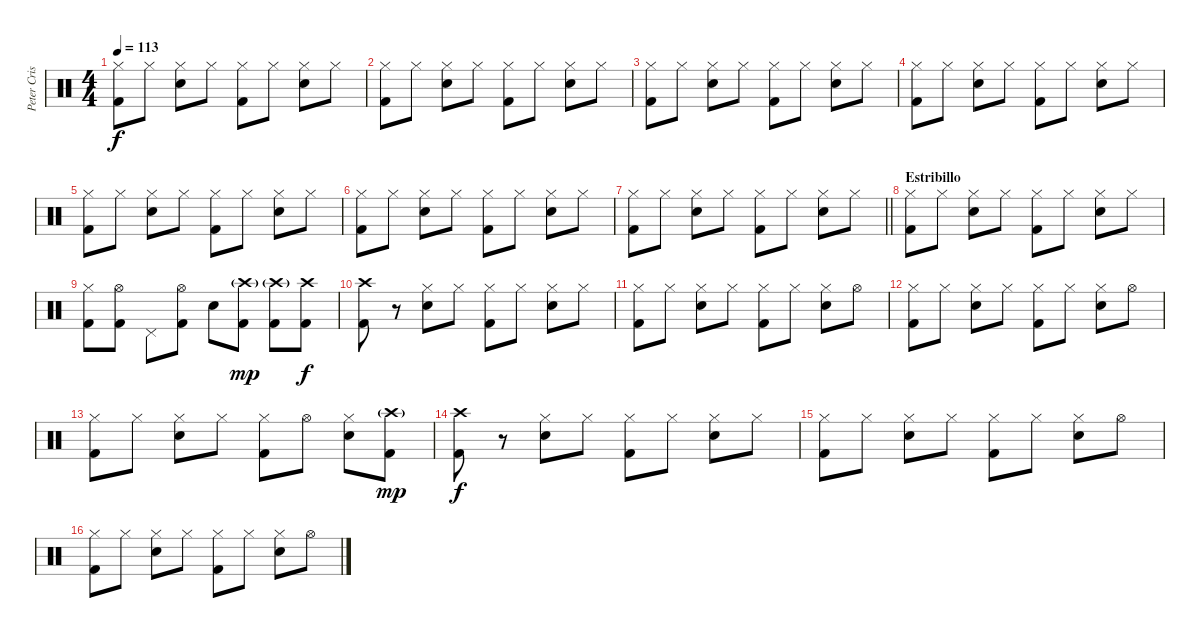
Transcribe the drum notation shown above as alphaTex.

\track ("Peter Criss" "Peter Cris") {instrument percussion}
\staff {score}
\articulation defaults
\ts (4 4)
\tempo 113
\clef neutral
\ks c
("Hi-Hat (closed)" "Kick (hit) 2").8{dy f} "Hi-Hat (closed)".8 ("Hi-Hat (closed)" "Electric Snare (hit)").8 "Hi-Hat (closed)".8 ("Hi-Hat (closed)" "Kick (hit) 2").8 "Hi-Hat (closed)".8 ("Hi-Hat (closed)" "Electric Snare (hit)").8 "Hi-Hat (closed)".8 |
("Hi-Hat (closed)" "Kick (hit) 2").8 "Hi-Hat (closed)".8 ("Hi-Hat (closed)" "Electric Snare (hit)").8 "Hi-Hat (closed)".8 ("Hi-Hat (closed)" "Kick (hit) 2").8 "Hi-Hat (closed)".8 ("Hi-Hat (closed)" "Electric Snare (hit)").8 "Hi-Hat (closed)".8 |
("Hi-Hat (closed)" "Kick (hit) 2").8 "Hi-Hat (closed)".8 ("Hi-Hat (closed)" "Electric Snare (hit)").8 "Hi-Hat (closed)".8 ("Hi-Hat (closed)" "Kick (hit) 2").8 "Hi-Hat (closed)".8 ("Hi-Hat (closed)" "Electric Snare (hit)").8 "Hi-Hat (closed)".8 |
("Hi-Hat (closed)" "Kick (hit) 2").8 "Hi-Hat (closed)".8 ("Hi-Hat (closed)" "Electric Snare (hit)").8 "Hi-Hat (closed)".8 ("Hi-Hat (closed)" "Kick (hit) 2").8 "Hi-Hat (closed)".8 ("Hi-Hat (closed)" "Electric Snare (hit)").8 "Hi-Hat (closed)".8 |
("Hi-Hat (closed)" "Kick (hit) 2").8 "Hi-Hat (closed)".8 ("Hi-Hat (closed)" "Electric Snare (hit)").8 "Hi-Hat (closed)".8 ("Hi-Hat (closed)" "Kick (hit) 2").8 "Hi-Hat (closed)".8 ("Hi-Hat (closed)" "Electric Snare (hit)").8 "Hi-Hat (closed)".8 |
("Hi-Hat (closed)" "Kick (hit) 2").8 "Hi-Hat (closed)".8 ("Hi-Hat (closed)" "Electric Snare (hit)").8 "Hi-Hat (closed)".8 ("Hi-Hat (closed)" "Kick (hit) 2").8 "Hi-Hat (closed)".8 ("Hi-Hat (closed)" "Electric Snare (hit)").8 "Hi-Hat (closed)".8 |
\barLineRight lightlight
("Hi-Hat (closed)" "Kick (hit) 2").8 "Hi-Hat (closed)".8 ("Hi-Hat (closed)" "Electric Snare (hit)").8 "Hi-Hat (closed)".8 ("Hi-Hat (closed)" "Kick (hit) 2").8 "Hi-Hat (closed)".8 ("Hi-Hat (closed)" "Electric Snare (hit)").8 "Hi-Hat (closed)".8 |
\section ("" "Estribillo")
("Hi-Hat (closed)" "Kick (hit) 2").8 "Hi-Hat (closed)".8 ("Hi-Hat (closed)" "Electric Snare (hit)").8 "Hi-Hat (closed)".8 ("Hi-Hat (closed)" "Kick (hit) 2").8 "Hi-Hat (closed)".8 ("Hi-Hat (closed)" "Electric Snare (hit)").8 "Hi-Hat (closed)".8 |
("Hi-Hat (closed)" "Kick (hit) 2").8 ("Hi-Hat (open)" "Kick (hit) 2").8 "Pedal Hi-Hat (hit)".8 ("Hi-Hat (open)" "Kick (hit) 2").8 "Electric Snare (hit)".8 ("Crash high (hit)"{g} "Kick (hit) 2").8{dy mp} ("Crash high (hit)"{g} "Kick (hit) 2").8 ("Crash high (hit)" "Kick (hit) 2").8{dy f} |
("Crash high (hit)" "Kick (hit) 2").8 r.8 ("Hi-Hat (closed)" "Electric Snare (hit)").8 "Hi-Hat (closed)".8 ("Hi-Hat (closed)" "Kick (hit) 2").8 "Hi-Hat (closed)".8 ("Hi-Hat (closed)" "Electric Snare (hit)").8 "Hi-Hat (closed)".8 |
("Hi-Hat (closed)" "Kick (hit) 2").8 "Hi-Hat (closed)".8 ("Hi-Hat (closed)" "Electric Snare (hit)").8 "Hi-Hat (closed)".8 ("Hi-Hat (closed)" "Kick (hit) 2").8 "Hi-Hat (closed)".8 ("Hi-Hat (closed)" "Electric Snare (hit)").8 "Hi-Hat (open)".8 |
("Hi-Hat (closed)" "Kick (hit) 2").8 "Hi-Hat (closed)".8 ("Hi-Hat (closed)" "Electric Snare (hit)").8 "Hi-Hat (closed)".8 ("Hi-Hat (closed)" "Kick (hit) 2").8 "Hi-Hat (closed)".8 ("Hi-Hat (closed)" "Electric Snare (hit)").8 "Hi-Hat (open)".8 |
("Hi-Hat (closed)" "Kick (hit) 2").8 "Hi-Hat (closed)".8 ("Hi-Hat (closed)" "Electric Snare (hit)").8 "Hi-Hat (closed)".8 ("Hi-Hat (closed)" "Kick (hit) 2").8 "Hi-Hat (open)".8 ("Hi-Hat (closed)" "Electric Snare (hit)").8 ("Crash high (hit)"{g} "Kick (hit) 2").8{dy mp} |
("Crash high (hit)" "Kick (hit) 2").8{dy f} r.8 ("Hi-Hat (closed)" "Electric Snare (hit)").8 "Hi-Hat (closed)".8 ("Hi-Hat (closed)" "Kick (hit) 2").8 "Hi-Hat (closed)".8 ("Hi-Hat (closed)" "Electric Snare (hit)").8 "Hi-Hat (closed)".8 |
("Hi-Hat (closed)" "Kick (hit) 2").8 "Hi-Hat (closed)".8 ("Hi-Hat (closed)" "Electric Snare (hit)").8 "Hi-Hat (closed)".8 ("Hi-Hat (closed)" "Kick (hit) 2").8 "Hi-Hat (closed)".8 ("Hi-Hat (closed)" "Electric Snare (hit)").8 "Hi-Hat (open)".8 |
("Hi-Hat (closed)" "Kick (hit) 2").8 "Hi-Hat (closed)".8 ("Hi-Hat (closed)" "Electric Snare (hit)").8 "Hi-Hat (closed)".8 ("Hi-Hat (closed)" "Kick (hit) 2").8 "Hi-Hat (closed)".8 ("Hi-Hat (closed)" "Electric Snare (hit)").8 "Hi-Hat (open)".8
